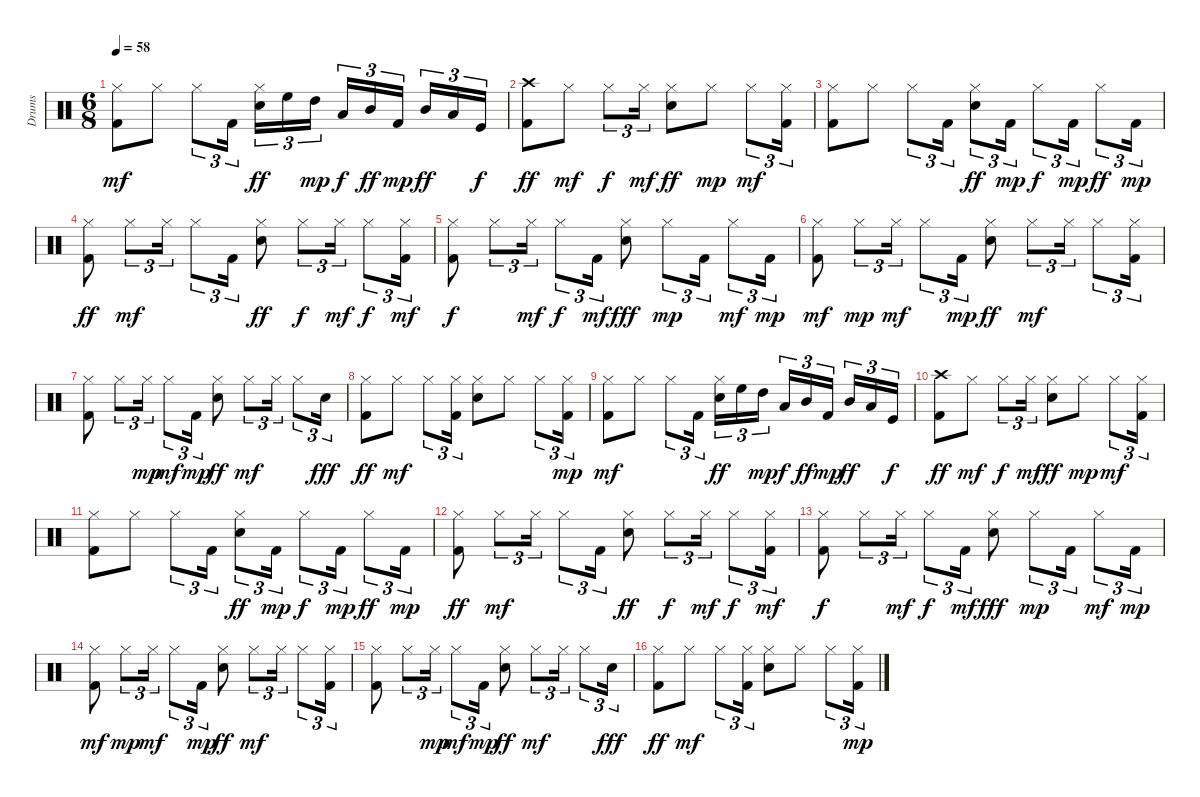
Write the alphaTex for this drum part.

\track ("Drums " "Drums ") {instrument percussion}
\staff {score}
\articulation defaults
\ts (6 8)
\tempo 58
\clef neutral
\ks c
("Kick (hit) 2" "Hi-Hat (closed)").8{dy mf} "Hi-Hat (closed)".8 "Hi-Hat (closed)".8{tu (3 2)} "Kick (hit) 2".16{tu (3 2)} ("Electric Snare (hit)" "Hi-Hat (closed)").16{tu (3 2) dy ff} "High Floor Tom (hit)".16{tu (3 2)} "High Tom (hit)".16{tu (3 2) dy mp} "Low Tom (hit)".16{tu (3 2) dy f} "Mid Tom (hit)".16{tu (3 2) dy ff} "Kick (hit) 2".16{tu (3 2) dy mp} "Mid Tom (hit)".16{tu (3 2) dy ff} "Low Tom (hit)".16{tu (3 2)} "Kick (hit)".16{tu (3 2) dy f} |
("Kick (hit) 2" "Crash high (hit)").8{dy ff} "Hi-Hat (closed)".8{dy mf} "Hi-Hat (closed)".8{tu (3 2) dy f} "Hi-Hat (closed)".16{tu (3 2) dy mf} ("Electric Snare (hit)" "Hi-Hat (closed)").8{dy ff} "Hi-Hat (closed)".8{dy mp} "Hi-Hat (closed)".8{tu (3 2) dy mf} ("Kick (hit) 2" "Hi-Hat (closed)").16{tu (3 2)} |
("Kick (hit) 2" "Hi-Hat (closed)").8 "Hi-Hat (closed)".8 "Hi-Hat (closed)".8{tu (3 2)} "Kick (hit) 2".16{tu (3 2)} ("Electric Snare (hit)" "Hi-Hat (closed)").8{tu (3 2) dy ff} "Kick (hit) 2".16{tu (3 2) dy mp} "Hi-Hat (closed)".8{tu (3 2) dy f} "Kick (hit) 2".16{tu (3 2) dy mp} "Hi-Hat (closed)".8{tu (3 2) dy ff} "Kick (hit) 2".16{tu (3 2) dy mp} |
("Kick (hit) 2" "Hi-Hat (closed)").8{dy ff} "Hi-Hat (closed)".8{tu (3 2) dy mf} "Hi-Hat (closed)".16{tu (3 2)} "Hi-Hat (closed)".8{tu (3 2)} "Kick (hit) 2".16{tu (3 2)} ("Electric Snare (hit)" "Hi-Hat (closed)").8{dy ff} "Hi-Hat (closed)".8{tu (3 2) dy f} "Hi-Hat (closed)".16{tu (3 2) dy mf} "Hi-Hat (closed)".8{tu (3 2) dy f} ("Kick (hit) 2" "Hi-Hat (closed)").16{tu (3 2) dy mf} |
("Kick (hit) 2" "Hi-Hat (closed)").8{dy f} "Hi-Hat (closed)".8{tu (3 2)} "Hi-Hat (closed)".16{tu (3 2) dy mf} "Hi-Hat (closed)".8{tu (3 2) dy f} "Kick (hit) 2".16{tu (3 2) dy mf} ("Electric Snare (hit)" "Hi-Hat (closed)").8{dy fff} "Hi-Hat (closed)".8{tu (3 2) dy mp} "Kick (hit) 2".16{tu (3 2)} "Hi-Hat (closed)".8{tu (3 2) dy mf} "Kick (hit) 2".16{tu (3 2) dy mp} |
("Kick (hit) 2" "Hi-Hat (closed)").8{dy mf} "Hi-Hat (closed)".8{tu (3 2) dy mp} "Hi-Hat (closed)".16{tu (3 2) dy mf} "Hi-Hat (closed)".8{tu (3 2)} "Kick (hit) 2".16{tu (3 2) dy mp} ("Electric Snare (hit)" "Hi-Hat (closed)").8{dy ff} "Hi-Hat (closed)".8{tu (3 2) dy mf} "Hi-Hat (closed)".16{tu (3 2)} "Hi-Hat (closed)".8{tu (3 2)} ("Kick (hit) 2" "Hi-Hat (closed)").16{tu (3 2)} |
("Kick (hit) 2" "Hi-Hat (closed)").8 "Hi-Hat (closed)".8{tu (3 2)} "Hi-Hat (closed)".16{tu (3 2) dy mp} "Hi-Hat (closed)".8{tu (3 2) dy mf} "Kick (hit) 2".16{tu (3 2) dy mp} ("Electric Snare (hit)" "Hi-Hat (closed)").8{dy ff} "Hi-Hat (closed)".8{tu (3 2) dy mf} "Hi-Hat (closed)".16{tu (3 2)} "Hi-Hat (closed)".8{tu (3 2)} "Electric Snare (hit)".16{tu (3 2) dy fff} |
("Kick (hit) 2" "Hi-Hat (closed)").8{dy ff} "Hi-Hat (closed)".8{dy mf} "Hi-Hat (closed)".8{tu (3 2)} ("Kick (hit) 2" "Hi-Hat (closed)").16{tu (3 2)} ("Electric Snare (hit)" "Hi-Hat (closed)").8 "Hi-Hat (closed)".8 "Hi-Hat (closed)".8{tu (3 2)} ("Kick (hit) 2" "Hi-Hat (closed)").16{tu (3 2) dy mp} |
("Kick (hit) 2" "Hi-Hat (closed)").8{dy mf} "Hi-Hat (closed)".8 "Hi-Hat (closed)".8{tu (3 2)} "Kick (hit) 2".16{tu (3 2)} ("Electric Snare (hit)" "Hi-Hat (closed)").16{tu (3 2) dy ff} "High Floor Tom (hit)".16{tu (3 2)} "High Tom (hit)".16{tu (3 2) dy mp} "Low Tom (hit)".16{tu (3 2) dy f} "Mid Tom (hit)".16{tu (3 2) dy ff} "Kick (hit) 2".16{tu (3 2) dy mp} "Mid Tom (hit)".16{tu (3 2) dy ff} "Low Tom (hit)".16{tu (3 2)} "Kick (hit)".16{tu (3 2) dy f} |
("Kick (hit) 2" "Crash high (hit)").8{dy ff} "Hi-Hat (closed)".8{dy mf} "Hi-Hat (closed)".8{tu (3 2) dy f} "Hi-Hat (closed)".16{tu (3 2) dy mf} ("Electric Snare (hit)" "Hi-Hat (closed)").8{dy ff} "Hi-Hat (closed)".8{dy mp} "Hi-Hat (closed)".8{tu (3 2) dy mf} ("Kick (hit) 2" "Hi-Hat (closed)").16{tu (3 2)} |
("Kick (hit) 2" "Hi-Hat (closed)").8 "Hi-Hat (closed)".8 "Hi-Hat (closed)".8{tu (3 2)} "Kick (hit) 2".16{tu (3 2)} ("Electric Snare (hit)" "Hi-Hat (closed)").8{tu (3 2) dy ff} "Kick (hit) 2".16{tu (3 2) dy mp} "Hi-Hat (closed)".8{tu (3 2) dy f} "Kick (hit) 2".16{tu (3 2) dy mp} "Hi-Hat (closed)".8{tu (3 2) dy ff} "Kick (hit) 2".16{tu (3 2) dy mp} |
("Kick (hit) 2" "Hi-Hat (closed)").8{dy ff} "Hi-Hat (closed)".8{tu (3 2) dy mf} "Hi-Hat (closed)".16{tu (3 2)} "Hi-Hat (closed)".8{tu (3 2)} "Kick (hit) 2".16{tu (3 2)} ("Electric Snare (hit)" "Hi-Hat (closed)").8{dy ff} "Hi-Hat (closed)".8{tu (3 2) dy f} "Hi-Hat (closed)".16{tu (3 2) dy mf} "Hi-Hat (closed)".8{tu (3 2) dy f} ("Kick (hit) 2" "Hi-Hat (closed)").16{tu (3 2) dy mf} |
("Kick (hit) 2" "Hi-Hat (closed)").8{dy f} "Hi-Hat (closed)".8{tu (3 2)} "Hi-Hat (closed)".16{tu (3 2) dy mf} "Hi-Hat (closed)".8{tu (3 2) dy f} "Kick (hit) 2".16{tu (3 2) dy mf} ("Electric Snare (hit)" "Hi-Hat (closed)").8{dy fff} "Hi-Hat (closed)".8{tu (3 2) dy mp} "Kick (hit) 2".16{tu (3 2)} "Hi-Hat (closed)".8{tu (3 2) dy mf} "Kick (hit) 2".16{tu (3 2) dy mp} |
("Kick (hit) 2" "Hi-Hat (closed)").8{dy mf} "Hi-Hat (closed)".8{tu (3 2) dy mp} "Hi-Hat (closed)".16{tu (3 2) dy mf} "Hi-Hat (closed)".8{tu (3 2)} "Kick (hit) 2".16{tu (3 2) dy mp} ("Electric Snare (hit)" "Hi-Hat (closed)").8{dy ff} "Hi-Hat (closed)".8{tu (3 2) dy mf} "Hi-Hat (closed)".16{tu (3 2)} "Hi-Hat (closed)".8{tu (3 2)} ("Kick (hit) 2" "Hi-Hat (closed)").16{tu (3 2)} |
("Kick (hit) 2" "Hi-Hat (closed)").8 "Hi-Hat (closed)".8{tu (3 2)} "Hi-Hat (closed)".16{tu (3 2) dy mp} "Hi-Hat (closed)".8{tu (3 2) dy mf} "Kick (hit) 2".16{tu (3 2) dy mp} ("Electric Snare (hit)" "Hi-Hat (closed)").8{dy ff} "Hi-Hat (closed)".8{tu (3 2) dy mf} "Hi-Hat (closed)".16{tu (3 2)} "Hi-Hat (closed)".8{tu (3 2)} "Electric Snare (hit)".16{tu (3 2) dy fff} |
("Kick (hit) 2" "Hi-Hat (closed)").8{dy ff} "Hi-Hat (closed)".8{dy mf} "Hi-Hat (closed)".8{tu (3 2)} ("Kick (hit) 2" "Hi-Hat (closed)").16{tu (3 2)} ("Electric Snare (hit)" "Hi-Hat (closed)").8 "Hi-Hat (closed)".8 "Hi-Hat (closed)".8{tu (3 2)} ("Kick (hit) 2" "Hi-Hat (closed)").16{tu (3 2) dy mp}
